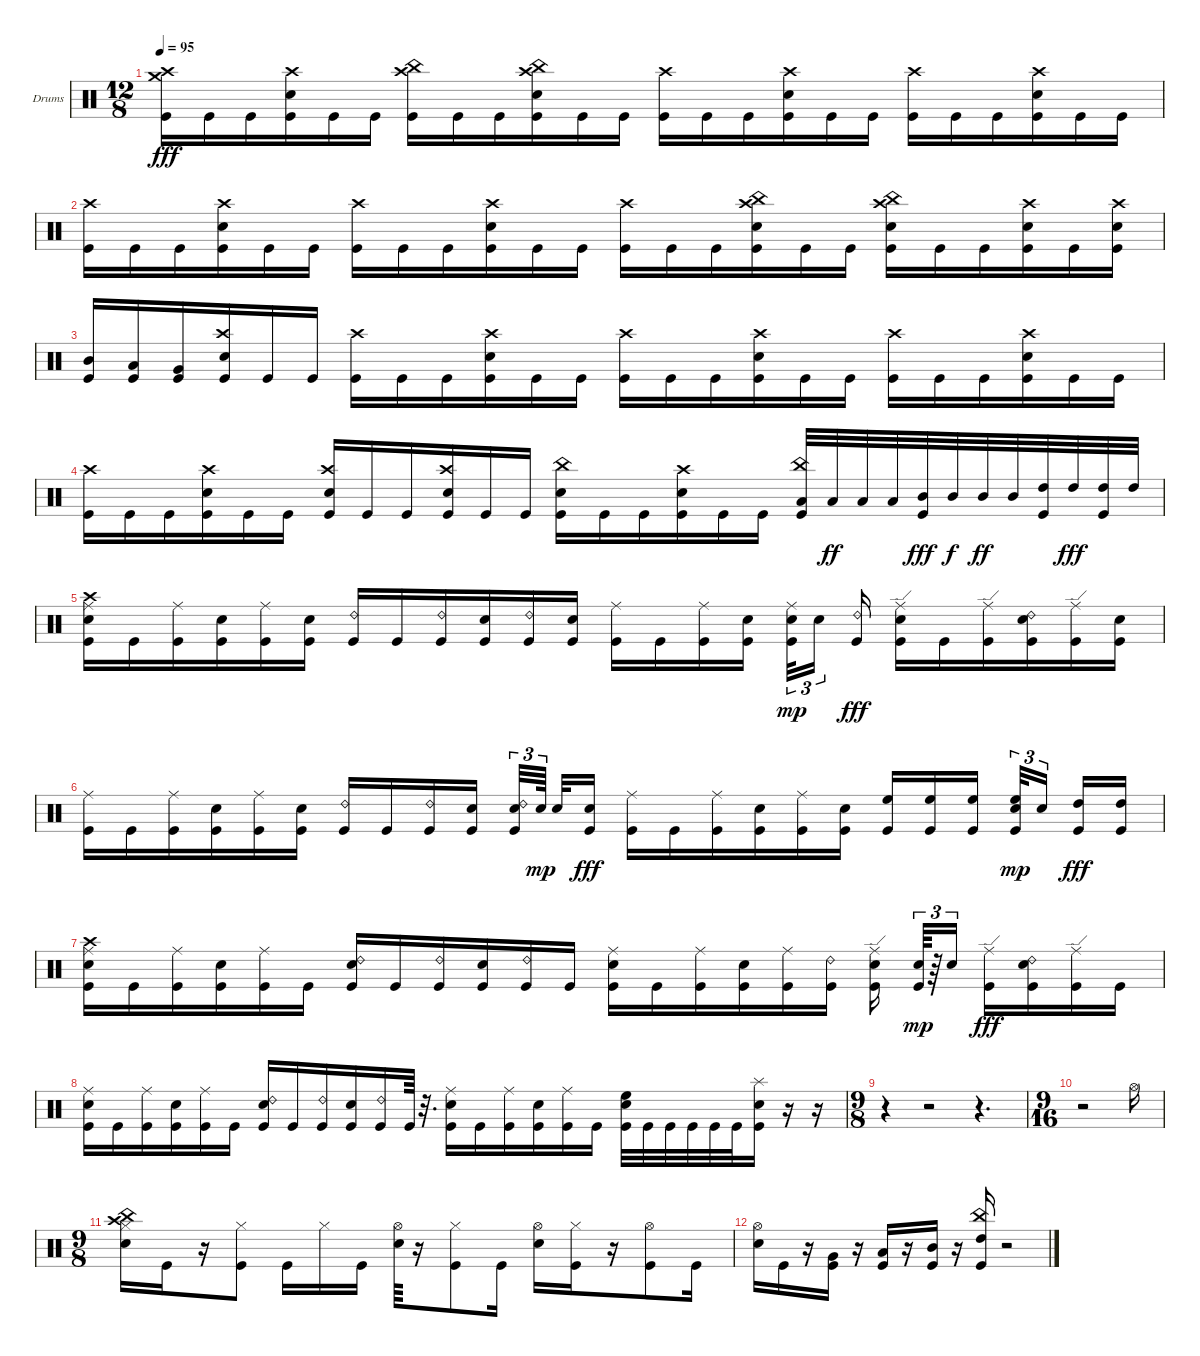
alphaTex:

\bracketExtendMode groupsimilarinstruments
\firstSystemTrackNameOrientation horizontal
\otherSystemsTrackNameOrientation horizontal
\track ("Drumkit" "Drums") {instrument percussion}
\staff {score}
\articulation defaults
\ts (12 8)
\tempo 95
\clef neutral
\ks c
("Kick (hit)" "Crash medium (hit)" "Crash high (hit)").16{dy fff} "Kick (hit)".16 "Kick (hit)".16 ("Kick (hit)" "Snare (hit) 2" "Crash high (hit)").16 "Kick (hit)".16 "Kick (hit)".16 ("Kick (hit)" "China (hit)" "Crash high (hit)").16 "Kick (hit)".16 "Kick (hit)".16 ("Kick (hit)" "Snare (hit) 2" "China (hit)" "Crash high (hit)").16 "Kick (hit)".16 "Kick (hit)".16 ("Kick (hit)" "Crash high (hit)").16 "Kick (hit)".16 "Kick (hit)".16 ("Kick (hit)" "Snare (hit) 2" "Crash high (hit)").16 "Kick (hit)".16 "Kick (hit)".16 ("Kick (hit)" "Crash high (hit)").16 "Kick (hit)".16 "Kick (hit)".16 ("Kick (hit)" "Snare (hit) 2" "Crash high (hit)").16 "Kick (hit)".16 "Kick (hit)".16 |
("Kick (hit)" "Crash high (hit)").16 "Kick (hit)".16 "Kick (hit)".16 ("Kick (hit)" "Snare (hit) 2" "Crash high (hit)").16 "Kick (hit)".16 "Kick (hit)".16 ("Kick (hit)" "Crash high (hit)").16 "Kick (hit)".16 "Kick (hit)".16 ("Kick (hit)" "Snare (hit) 2" "Crash high (hit)").16 "Kick (hit)".16 "Kick (hit)".16 ("Kick (hit)" "Crash high (hit)").16 "Kick (hit)".16 "Kick (hit)".16 ("Kick (hit)" "Snare (hit) 2" "China (hit)" "Crash high (hit)").16 "Kick (hit)".16 "Kick (hit)".16 ("Kick (hit)" "Snare (hit) 2" "China (hit)" "Crash high (hit)").16 "Kick (hit)".16 "Kick (hit)".16 ("Kick (hit)" "Snare (hit) 2" "Crash high (hit)").16 "Kick (hit)".16 ("Kick (hit)" "Snare (hit) 2" "Crash high (hit)").16 |
("Kick (hit)" "Mid Tom (hit)").16 ("Low Tom (hit)" "Kick (hit)").16 ("Very Low Tom (hit)" "Kick (hit)").16 ("Kick (hit)" "Snare (hit) 2" "Crash high (hit)").16 "Kick (hit)".16 "Kick (hit)".16 ("Kick (hit)" "Crash high (hit)").16 "Kick (hit)".16 "Kick (hit)".16 ("Kick (hit)" "Snare (hit) 2" "Crash high (hit)").16 "Kick (hit)".16 "Kick (hit)".16 ("Kick (hit)" "Crash high (hit)").16 "Kick (hit)".16 "Kick (hit)".16 ("Kick (hit)" "Snare (hit) 2" "Crash high (hit)").16 "Kick (hit)".16 "Kick (hit)".16 ("Kick (hit)" "Crash high (hit)").16 "Kick (hit)".16 "Kick (hit)".16 ("Kick (hit)" "Snare (hit) 2" "Crash high (hit)").16 "Kick (hit)".16 "Kick (hit)".16 |
("Kick (hit)" "Crash high (hit)").16 "Kick (hit)".16 "Kick (hit)".16 ("Kick (hit)" "Snare (hit) 2" "Crash high (hit)").16 "Kick (hit)".16 "Kick (hit)".16 ("Kick (hit)" "Snare (hit) 2" "Crash high (hit)").16 "Kick (hit)".16 "Kick (hit)".16 ("Kick (hit)" "Snare (hit) 2" "Crash high (hit)").16 "Kick (hit)".16 "Kick (hit)".16 ("Kick (hit)" "Snare (hit) 2" "China (hit)").16 "Kick (hit)".16 "Kick (hit)".16 ("Kick (hit)" "Snare (hit) 2" "Crash high (hit)").16 "Kick (hit)".16 "Kick (hit)".16 ("Kick (hit)" "Low Tom (hit)" "China (hit)").32 "Low Tom (hit)".32{dy ff} "Low Tom (hit)".32 "Low Tom (hit)".32 ("Kick (hit)" "Mid Tom (hit)").32{dy fff} "Mid Tom (hit)".32{dy f} "Mid Tom (hit)".32{dy ff} "Mid Tom (hit)".32 ("High Tom (hit)" "Kick (hit)").32 "High Tom (hit)".32{dy fff} ("Kick (hit)" "High Tom (hit)").32 "High Tom (hit)".32 |
("Ride (middle)" "Kick (hit)" "Snare (hit) 2" "Crash high (hit)").16 "Kick (hit)".16 ("Ride (middle)" "Kick (hit)").16 ("Kick (hit)" "Snare (hit) 2").16 ("Ride (middle)" "Kick (hit)").16 ("Snare (hit) 2" "Kick (hit)").16 ("Kick (hit)" "Ride (bell) 2").16 "Kick (hit)".16 ("Kick (hit)" "Ride (bell) 2").16 ("Kick (hit)" "Snare (hit) 2").16 ("Kick (hit)" "Ride (bell) 2").16 ("Snare (hit) 2" "Kick (hit)").16 ("Ride (middle)" "Kick (hit)").16 "Kick (hit)".16 ("Ride (middle)" "Kick (hit)").16 ("Kick (hit)" "Snare (hit) 2").16 ("Snare (hit) 2" "Ride (middle)" "Kick (hit)").32{tu (3 2) dy mp} "Snare (hit) 2".16{tu (3 2)} ("Ride (bell) 2" "Kick (hit)").16{dy fff} ("Snare (hit) 2" "Kick (hit)" "Ride (edge)").16 "Kick (hit)".16 ("Kick (hit)" "Ride (edge)").16 ("Kick (hit)" "Snare (hit) 2" "Ride (bell) 2").16 ("Kick (hit)" "Ride (edge)").16 ("Snare (hit) 2" "Kick (hit)").16 |
("Ride (middle)" "Kick (hit)").16 "Kick (hit)".16 ("Ride (middle)" "Kick (hit)").16 ("Kick (hit)" "Snare (hit) 2").16 ("Ride (middle)" "Kick (hit)").16 ("Snare (hit) 2" "Kick (hit)").16 ("Kick (hit)" "Ride (bell) 2").16 "Kick (hit)".16 ("Ride (bell) 2" "Kick (hit)").16 ("Snare (hit) 2" "Kick (hit)").16 ("Ride (bell) 2" "Kick (hit)" "Snare (hit) 2").32{tu (3 2)} "Snare (hit) 2".64{tu (3 2) dy mp} "Snare (hit) 2".32 ("Snare (hit) 2" "Kick (hit)").16{dy fff} ("Ride (middle)" "Kick (hit)").16 "Kick (hit)".16 ("Ride (middle)" "Kick (hit)").16 ("Kick (hit)" "Snare (hit) 2").16 ("Ride (middle)" "Kick (hit)").16 ("Snare (hit) 2" "Kick (hit)").16 ("Kick (hit)" "High Floor Tom (hit)").16 ("Kick (hit)" "High Floor Tom (hit)").16 ("Kick (hit)" "High Floor Tom (hit)").16 ("Snare (hit) 2" "Kick (hit)" "High Floor Tom (hit)").32{tu (3 2) dy mp} "Snare (hit) 2".16{tu (3 2)} ("Kick (hit)" "High Tom (hit)").16{dy fff} ("Kick (hit)" "High Tom (hit)").16 |
("Ride (middle)" "Kick (hit)" "Snare (hit) 2" "Crash high (hit)").16 "Kick (hit)".16 ("Kick (hit)" "Ride (middle)").16 ("Snare (hit) 2" "Kick (hit)").16 ("Kick (hit)" "Ride (middle)").16 "Kick (hit)".16 ("Snare (hit) 2" "Kick (hit)" "Ride (bell) 2").16 "Kick (hit)".16 ("Kick (hit)" "Ride (bell) 2").16 ("Kick (hit)" "Snare (hit) 2").16 ("Kick (hit)" "Ride (bell) 2").16 "Kick (hit)".16 ("Ride (middle)" "Kick (hit)" "Snare (hit) 2").16 "Kick (hit)".16 ("Kick (hit)" "Ride (middle)").16 ("Snare (hit) 2" "Kick (hit)").16 ("Ride (middle)" "Kick (hit)").16 ("Ride (bell) 2" "Kick (hit)").16 ("Snare (hit) 2" "Kick (hit)" "Ride (edge)").16 ("Snare (hit) 2" "Kick (hit)").64{tu (3 2) dy mp} r.64{tu (3 2)} "Snare (hit) 2".16{tu (3 2)} ("Kick (hit)" "Ride (edge)").16{dy fff} ("Kick (hit)" "Snare (hit) 2" "Ride (bell) 2").16 ("Kick (hit)" "Ride (edge)").16 "Kick (hit)".16 |
("Ride (middle)" "Kick (hit)" "Snare (hit) 2").16 "Kick (hit)".16 ("Ride (middle)" "Kick (hit)").16 ("Kick (hit)" "Snare (hit) 2").16 ("Ride (middle)" "Kick (hit)").16 "Kick (hit)".16 ("Snare (hit) 2" "Kick (hit)" "Ride (bell) 2").16 "Kick (hit)".16 ("Kick (hit)" "Ride (bell) 2").16 ("Kick (hit)" "Snare (hit) 2").16 ("Kick (hit)" "Ride (bell) 2").16 "Kick (hit)".64 r.32{d} ("Snare (hit) 2" "Kick (hit)" "Ride (middle)").16 "Kick (hit)".16 ("Ride (middle)" "Kick (hit)").16 ("Kick (hit)" "Snare (hit) 2").16 ("Ride (middle)" "Kick (hit)").16 "Kick (hit)".16 ("Snare (hit) 2" "Kick (hit)" "High Floor Tom (hit)").32 "Kick (hit)".32 "Kick (hit)".32 "Kick (hit)".32 "Kick (hit)".32 "Kick (hit)".32 ("Splash (hit)" "Kick (hit)" "Snare (hit) 2").16 r.16 r.16 |
\ts (9 8)
\beaming (8 2 2 2 3)
r.4 r.2 r.4{d} |
\ts (9 16)
\beaming (8 2 2 2 2)
r.2 "Hi-Hat (open)".16 |
\ts (9 8)
\beaming (8 2 2 2 3)
("Snare (hit) 2" "Hi-Hat (closed)" "China (hit)" "Crash high (hit)").16 "Kick (hit)".16 r.16 ("Kick (hit)" "Hi-Hat (closed)").8 "Kick (hit)".16 "Hi-Hat (closed)".16 "Kick (hit)".16 ("Snare (hit) 2" "Hi-Hat (open)").64 r.16 ("Kick (hit)" "Hi-Hat (closed)").8 "Kick (hit)".16 ("Snare (hit) 2" "Hi-Hat (open)").16 ("Kick (hit)" "Hi-Hat (closed)").16 r.16 ("Hi-Hat (open)" "Kick (hit)").8 "Kick (hit)".16 |
("Hi-Hat (open)" "Snare (hit) 2").16 "Kick (hit)".16 r.16 ("Kick (hit)" "Very Low Tom (hit)").16 r.16 ("Kick (hit)" "Low Tom (hit)").16 r.16 ("Kick (hit)" "Mid Tom (hit)").16 r.16 ("Kick (hit)" "China (hit)" "High Tom (hit)").16 r.2
